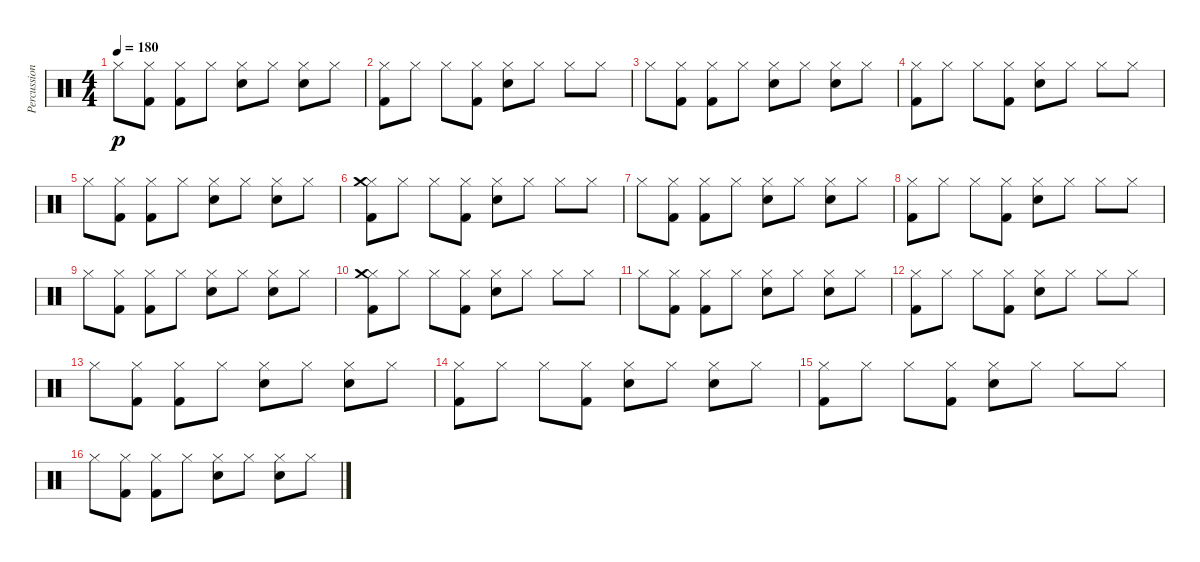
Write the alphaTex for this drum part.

\track ("Percussions" "Percussion") {instrument percussion}
\staff {score}
\articulation defaults
\ts (4 4)
\tempo 180
\clef neutral
\ks c "Hi-Hat (closed)".8{dy p}
("Hi-Hat (closed)" "Kick (hit) 2").8 ("Hi-Hat (closed)" "Kick (hit) 2").8 "Hi-Hat (closed)".8 ("Hi-Hat (closed)" "Electric Snare (hit)").8 "Hi-Hat (closed)".8 ("Hi-Hat (closed)" "Electric Snare (hit)").8 "Hi-Hat (closed)".8 |
("Hi-Hat (closed)" "Kick (hit) 2").8 "Hi-Hat (closed)".8 "Hi-Hat (closed)".8 ("Hi-Hat (closed)" "Kick (hit) 2").8 ("Hi-Hat (closed)" "Electric Snare (hit)").8 "Hi-Hat (closed)".8 "Hi-Hat (closed)".8 "Hi-Hat (closed)".8 |
"Hi-Hat (closed)".8 ("Hi-Hat (closed)" "Kick (hit) 2").8 ("Hi-Hat (closed)" "Kick (hit) 2").8 "Hi-Hat (closed)".8 ("Hi-Hat (closed)" "Electric Snare (hit)").8 "Hi-Hat (closed)".8 ("Hi-Hat (closed)" "Electric Snare (hit)").8 "Hi-Hat (closed)".8 |
("Hi-Hat (closed)" "Kick (hit) 2").8 "Hi-Hat (closed)".8 "Hi-Hat (closed)".8 ("Hi-Hat (closed)" "Kick (hit) 2").8 ("Hi-Hat (closed)" "Electric Snare (hit)").8 "Hi-Hat (closed)".8 "Hi-Hat (closed)".8 "Hi-Hat (closed)".8 |
"Hi-Hat (closed)".8 ("Hi-Hat (closed)" "Kick (hit) 2").8 ("Hi-Hat (closed)" "Kick (hit) 2").8 "Hi-Hat (closed)".8 ("Hi-Hat (closed)" "Electric Snare (hit)").8 "Hi-Hat (closed)".8 ("Hi-Hat (closed)" "Electric Snare (hit)").8 "Hi-Hat (closed)".8 |
("Hi-Hat (closed)" "Kick (hit) 2" "Crash medium (hit)").8 "Hi-Hat (closed)".8 "Hi-Hat (closed)".8 ("Hi-Hat (closed)" "Kick (hit) 2").8 ("Hi-Hat (closed)" "Electric Snare (hit)").8 "Hi-Hat (closed)".8 "Hi-Hat (closed)".8 "Hi-Hat (closed)".8 |
"Hi-Hat (closed)".8 ("Hi-Hat (closed)" "Kick (hit) 2").8 ("Hi-Hat (closed)" "Kick (hit) 2").8 "Hi-Hat (closed)".8 ("Hi-Hat (closed)" "Electric Snare (hit)").8 "Hi-Hat (closed)".8 ("Hi-Hat (closed)" "Electric Snare (hit)").8 "Hi-Hat (closed)".8 |
("Hi-Hat (closed)" "Kick (hit) 2").8 "Hi-Hat (closed)".8 "Hi-Hat (closed)".8 ("Hi-Hat (closed)" "Kick (hit) 2").8 ("Hi-Hat (closed)" "Electric Snare (hit)").8 "Hi-Hat (closed)".8 "Hi-Hat (closed)".8 "Hi-Hat (closed)".8 |
"Hi-Hat (closed)".8 ("Hi-Hat (closed)" "Kick (hit) 2").8 ("Hi-Hat (closed)" "Kick (hit) 2").8 "Hi-Hat (closed)".8 ("Hi-Hat (closed)" "Electric Snare (hit)").8 "Hi-Hat (closed)".8 ("Hi-Hat (closed)" "Electric Snare (hit)").8 "Hi-Hat (closed)".8 |
("Hi-Hat (closed)" "Kick (hit) 2" "Crash medium (hit)").8 "Hi-Hat (closed)".8 "Hi-Hat (closed)".8 ("Hi-Hat (closed)" "Kick (hit) 2").8 ("Hi-Hat (closed)" "Electric Snare (hit)").8 "Hi-Hat (closed)".8 "Hi-Hat (closed)".8 "Hi-Hat (closed)".8 |
"Hi-Hat (closed)".8 ("Hi-Hat (closed)" "Kick (hit) 2").8 ("Hi-Hat (closed)" "Kick (hit) 2").8 "Hi-Hat (closed)".8 ("Hi-Hat (closed)" "Electric Snare (hit)").8 "Hi-Hat (closed)".8 ("Hi-Hat (closed)" "Electric Snare (hit)").8 "Hi-Hat (closed)".8 |
("Hi-Hat (closed)" "Kick (hit) 2").8 "Hi-Hat (closed)".8 "Hi-Hat (closed)".8 ("Hi-Hat (closed)" "Kick (hit) 2").8 ("Hi-Hat (closed)" "Electric Snare (hit)").8 "Hi-Hat (closed)".8 "Hi-Hat (closed)".8 "Hi-Hat (closed)".8 |
"Hi-Hat (closed)".8 ("Hi-Hat (closed)" "Kick (hit) 2").8 ("Hi-Hat (closed)" "Kick (hit) 2").8 "Hi-Hat (closed)".8 ("Hi-Hat (closed)" "Electric Snare (hit)").8 "Hi-Hat (closed)".8 ("Hi-Hat (closed)" "Electric Snare (hit)").8 "Hi-Hat (closed)".8 |
("Hi-Hat (closed)" "Kick (hit) 2").8 "Hi-Hat (closed)".8 "Hi-Hat (closed)".8 ("Hi-Hat (closed)" "Kick (hit) 2").8 ("Hi-Hat (closed)" "Electric Snare (hit)").8 "Hi-Hat (closed)".8 ("Hi-Hat (closed)" "Electric Snare (hit)").8 "Hi-Hat (closed)".8 |
("Hi-Hat (closed)" "Kick (hit) 2").8 "Hi-Hat (closed)".8 "Hi-Hat (closed)".8 ("Hi-Hat (closed)" "Kick (hit) 2").8 ("Hi-Hat (closed)" "Electric Snare (hit)").8 "Hi-Hat (closed)".8 "Hi-Hat (closed)".8 "Hi-Hat (closed)".8 |
"Hi-Hat (closed)".8 ("Hi-Hat (closed)" "Kick (hit) 2").8 ("Hi-Hat (closed)" "Kick (hit) 2").8 "Hi-Hat (closed)".8 ("Hi-Hat (closed)" "Electric Snare (hit)").8 "Hi-Hat (closed)".8 ("Hi-Hat (closed)" "Electric Snare (hit)").8 "Hi-Hat (closed)".8
